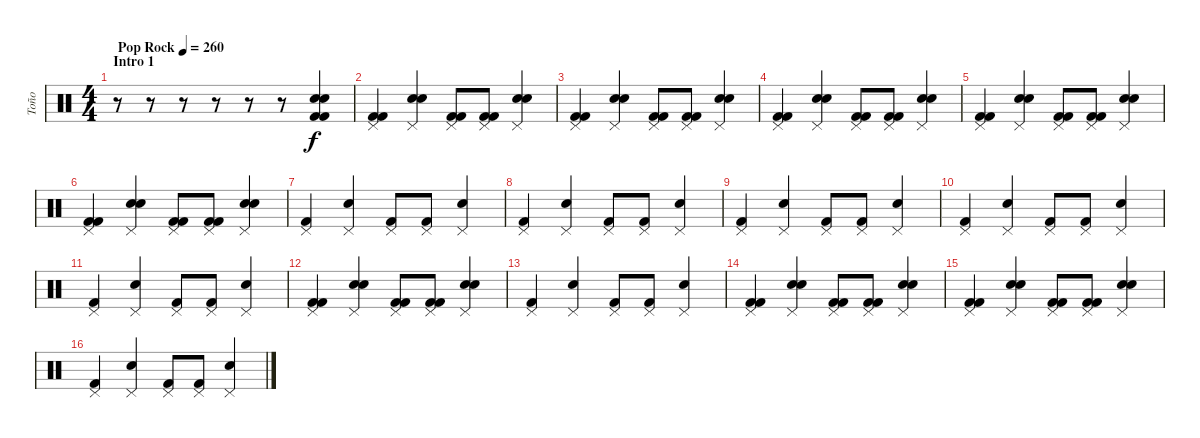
\track ("Toño" "Toño") {instrument percussion}
\staff {score}
\articulation defaults
\ts (4 4)
\section ("" "Intro 1")
\tempo (260 "Pop Rock")
\clef neutral
\ks c
r.8{dy f} r.8 r.8 r.8 r.8 r.8 ("Kick (hit) 2" "Kick (hit) 2" "Electric Snare (hit)" "Electric Snare (hit)").4 |
("Kick (hit) 2" "Pedal Hi-Hat (hit)" "Kick (hit) 2").4 ("Electric Snare (hit)" "Pedal Hi-Hat (hit)" "Electric Snare (hit)").4 ("Kick (hit) 2" "Pedal Hi-Hat (hit)" "Kick (hit) 2").8 ("Kick (hit) 2" "Pedal Hi-Hat (hit)" "Kick (hit) 2").8 ("Electric Snare (hit)" "Pedal Hi-Hat (hit)" "Electric Snare (hit)").4 |
("Kick (hit) 2" "Pedal Hi-Hat (hit)" "Kick (hit) 2").4 ("Electric Snare (hit)" "Pedal Hi-Hat (hit)" "Electric Snare (hit)").4 ("Kick (hit) 2" "Pedal Hi-Hat (hit)" "Kick (hit) 2").8 ("Kick (hit) 2" "Pedal Hi-Hat (hit)" "Kick (hit) 2").8 ("Electric Snare (hit)" "Pedal Hi-Hat (hit)" "Electric Snare (hit)").4 |
("Kick (hit) 2" "Pedal Hi-Hat (hit)" "Kick (hit) 2").4 ("Electric Snare (hit)" "Pedal Hi-Hat (hit)" "Electric Snare (hit)").4 ("Kick (hit) 2" "Pedal Hi-Hat (hit)" "Kick (hit) 2").8 ("Kick (hit) 2" "Pedal Hi-Hat (hit)" "Kick (hit) 2").8 ("Electric Snare (hit)" "Pedal Hi-Hat (hit)" "Electric Snare (hit)").4 |
("Kick (hit) 2" "Pedal Hi-Hat (hit)" "Kick (hit) 2").4 ("Electric Snare (hit)" "Pedal Hi-Hat (hit)" "Electric Snare (hit)").4 ("Kick (hit) 2" "Pedal Hi-Hat (hit)" "Kick (hit) 2").8 ("Kick (hit) 2" "Pedal Hi-Hat (hit)" "Kick (hit) 2").8 ("Electric Snare (hit)" "Pedal Hi-Hat (hit)" "Electric Snare (hit)").4 |
("Kick (hit) 2" "Pedal Hi-Hat (hit)" "Kick (hit) 2").4 ("Electric Snare (hit)" "Pedal Hi-Hat (hit)" "Electric Snare (hit)").4 ("Kick (hit) 2" "Pedal Hi-Hat (hit)" "Kick (hit) 2").8 ("Kick (hit) 2" "Pedal Hi-Hat (hit)" "Kick (hit) 2").8 ("Electric Snare (hit)" "Pedal Hi-Hat (hit)" "Electric Snare (hit)").4 |
("Pedal Hi-Hat (hit)" "Kick (hit) 2").4 ("Pedal Hi-Hat (hit)" "Electric Snare (hit)").4 ("Pedal Hi-Hat (hit)" "Kick (hit) 2").8 ("Pedal Hi-Hat (hit)" "Kick (hit) 2").8 ("Pedal Hi-Hat (hit)" "Electric Snare (hit)").4 |
("Pedal Hi-Hat (hit)" "Kick (hit) 2").4 ("Pedal Hi-Hat (hit)" "Electric Snare (hit)").4 ("Pedal Hi-Hat (hit)" "Kick (hit) 2").8 ("Pedal Hi-Hat (hit)" "Kick (hit) 2").8 ("Pedal Hi-Hat (hit)" "Electric Snare (hit)").4 |
("Pedal Hi-Hat (hit)" "Kick (hit) 2").4 ("Pedal Hi-Hat (hit)" "Electric Snare (hit)").4 ("Pedal Hi-Hat (hit)" "Kick (hit) 2").8 ("Pedal Hi-Hat (hit)" "Kick (hit) 2").8 ("Pedal Hi-Hat (hit)" "Electric Snare (hit)").4 |
("Pedal Hi-Hat (hit)" "Kick (hit) 2").4 ("Pedal Hi-Hat (hit)" "Electric Snare (hit)").4 ("Pedal Hi-Hat (hit)" "Kick (hit) 2").8 ("Pedal Hi-Hat (hit)" "Kick (hit) 2").8 ("Pedal Hi-Hat (hit)" "Electric Snare (hit)").4 |
("Pedal Hi-Hat (hit)" "Kick (hit) 2").4 ("Pedal Hi-Hat (hit)" "Electric Snare (hit)").4 ("Pedal Hi-Hat (hit)" "Kick (hit) 2").8 ("Pedal Hi-Hat (hit)" "Kick (hit) 2").8 ("Pedal Hi-Hat (hit)" "Electric Snare (hit)").4 |
("Kick (hit) 2" "Pedal Hi-Hat (hit)" "Kick (hit) 2").4 ("Electric Snare (hit)" "Pedal Hi-Hat (hit)" "Electric Snare (hit)").4 ("Kick (hit) 2" "Pedal Hi-Hat (hit)" "Kick (hit) 2").8 ("Kick (hit) 2" "Pedal Hi-Hat (hit)" "Kick (hit) 2").8 ("Electric Snare (hit)" "Pedal Hi-Hat (hit)" "Electric Snare (hit)").4 |
("Pedal Hi-Hat (hit)" "Kick (hit) 2").4 ("Pedal Hi-Hat (hit)" "Electric Snare (hit)").4 ("Pedal Hi-Hat (hit)" "Kick (hit) 2").8 ("Pedal Hi-Hat (hit)" "Kick (hit) 2").8 ("Pedal Hi-Hat (hit)" "Electric Snare (hit)").4 |
("Kick (hit) 2" "Pedal Hi-Hat (hit)" "Kick (hit) 2").4 ("Electric Snare (hit)" "Pedal Hi-Hat (hit)" "Electric Snare (hit)").4 ("Kick (hit) 2" "Pedal Hi-Hat (hit)" "Kick (hit) 2").8 ("Kick (hit) 2" "Pedal Hi-Hat (hit)" "Kick (hit) 2").8 ("Electric Snare (hit)" "Pedal Hi-Hat (hit)" "Electric Snare (hit)").4 |
("Kick (hit) 2" "Pedal Hi-Hat (hit)" "Kick (hit) 2").4 ("Electric Snare (hit)" "Pedal Hi-Hat (hit)" "Electric Snare (hit)").4 ("Kick (hit) 2" "Pedal Hi-Hat (hit)" "Kick (hit) 2").8 ("Kick (hit) 2" "Pedal Hi-Hat (hit)" "Kick (hit) 2").8 ("Electric Snare (hit)" "Pedal Hi-Hat (hit)" "Electric Snare (hit)").4 |
("Pedal Hi-Hat (hit)" "Kick (hit) 2").4 ("Pedal Hi-Hat (hit)" "Electric Snare (hit)").4 ("Pedal Hi-Hat (hit)" "Kick (hit) 2").8 ("Pedal Hi-Hat (hit)" "Kick (hit) 2").8 ("Pedal Hi-Hat (hit)" "Electric Snare (hit)").4
